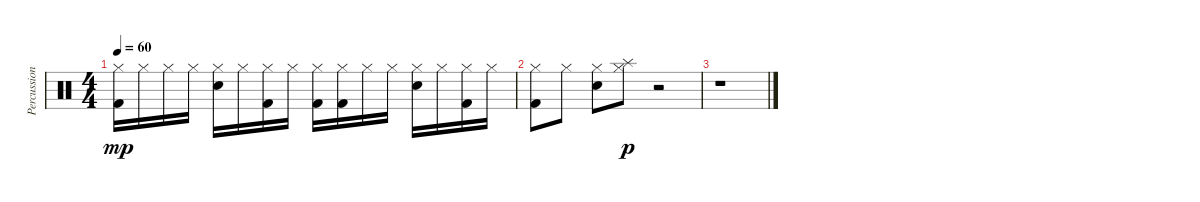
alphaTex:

\track ("Percussions" "Percussion") {instrument percussion}
\staff {score}
\articulation defaults
\ts (4 4)
\tempo 60
\clef neutral
\ks c
("Hi-Hat (closed)" "Kick (hit) 2").16{dy mp} "Hi-Hat (closed)".16 "Hi-Hat (closed)".16 "Hi-Hat (closed)".16 ("Hi-Hat (closed)" "Snare (hit) 2").16 "Hi-Hat (closed)".16 ("Hi-Hat (closed)" "Kick (hit) 2").16 "Hi-Hat (closed)".16 ("Hi-Hat (closed)" "Kick (hit) 2").16 ("Hi-Hat (closed)" "Kick (hit) 2").16 "Hi-Hat (closed)".16 "Hi-Hat (closed)".16 ("Hi-Hat (closed)" "Snare (hit) 2").16 "Hi-Hat (closed)".16 ("Hi-Hat (closed)" "Kick (hit) 2").16 "Hi-Hat (closed)".16 |
("Hi-Hat (closed)" "Kick (hit) 2").8 "Hi-Hat (closed)".8 ("Hi-Hat (closed)" "Snare (hit) 2").8 ("Hi-Hat (closed)" "Splash (hit)").8{dy p} r.2 |
r.1
